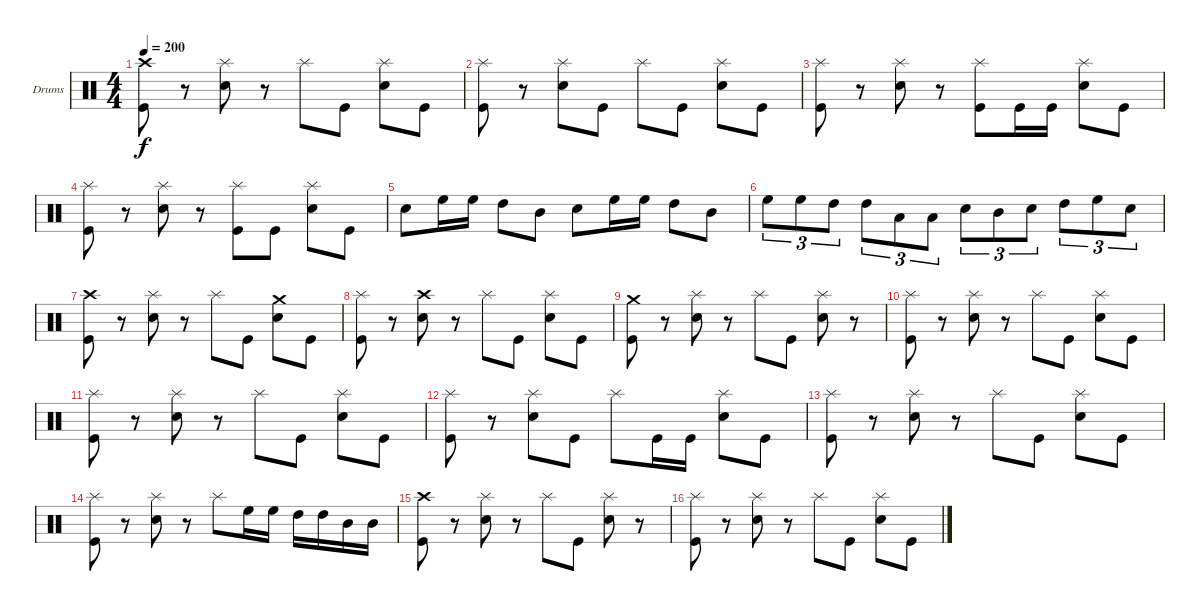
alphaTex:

\bracketExtendMode groupsimilarinstruments
\firstSystemTrackNameOrientation horizontal
\otherSystemsTrackNameOrientation horizontal
\track ("Drumkit" "Drums") {instrument percussion}
\staff {score}
\articulation defaults
\ts (4 4)
\tempo 200
\clef neutral
\ks c
("Crash high (hit)" "Kick (hit)").8{dy f} r.8 ("Splash (hit)" "Snare (hit) 2").8 r.8 "Splash (hit)".8 "Kick (hit)".8 ("Splash (hit)" "Snare (hit) 2").8 "Kick (hit)".8 |
("Splash (hit)" "Kick (hit)").8 r.8 ("Splash (hit)" "Snare (hit) 2").8 "Kick (hit)".8 "Splash (hit)".8 "Kick (hit)".8 ("Splash (hit)" "Snare (hit) 2").8 "Kick (hit)".8 |
("Splash (hit)" "Kick (hit)").8 r.8 ("Splash (hit)" "Snare (hit) 2").8 r.8 ("Splash (hit)" "Kick (hit)").8 "Kick (hit)".16 "Kick (hit)".16 ("Splash (hit)" "Snare (hit) 2").8 "Kick (hit)".8 |
("Splash (hit)" "Kick (hit)").8 r.8 ("Splash (hit)" "Snare (hit) 2").8 r.8 ("Splash (hit)" "Kick (hit)").8 "Kick (hit)".8 ("Splash (hit)" "Snare (hit) 2").8 "Kick (hit)".8 |
"Snare (hit) 2".8 "High Floor Tom (hit)".16 "High Floor Tom (hit)".16 "High Tom (hit)".8 "Mid Tom (hit)".8 "Snare (hit) 2".8 "High Floor Tom (hit)".16 "High Floor Tom (hit)".16 "High Tom (hit)".8 "Mid Tom (hit)".8 |
"High Floor Tom (hit)".8{tu (3 2)} "High Floor Tom (hit)".8{tu (3 2)} "High Tom (hit)".8{tu (3 2)} "High Tom (hit)".8{tu (3 2)} "Low Tom (hit)".8{tu (3 2)} "Low Tom (hit)".8{tu (3 2)} "Snare (hit) 2".8{tu (3 2)} "Mid Tom (hit)".8{tu (3 2)} "Snare (hit) 2".8{tu (3 2)} "High Tom (hit)".8{tu (3 2)} "High Floor Tom (hit)".8{tu (3 2)} "Snare (hit) 2".8{tu (3 2)} |
("Crash high (hit)" "Kick (hit)").8 r.8 ("Splash (hit)" "Snare (hit) 2").8 r.8 "Splash (hit)".8 "Kick (hit)".8 ("Crash medium (hit)" "Snare (hit) 2").8 "Kick (hit)".8 |
("Splash (hit)" "Kick (hit)").8 r.8 ("Crash high (hit)" "Snare (hit) 2").8 r.8 "Splash (hit)".8 "Kick (hit)".8 ("Splash (hit)" "Snare (hit) 2").8 "Kick (hit)".8 |
("Crash medium (hit)" "Kick (hit)").8 r.8 ("Splash (hit)" "Snare (hit) 2").8 r.8 "Splash (hit)".8 "Kick (hit)".8 ("Splash (hit)" "Snare (hit) 2").8 r.8 |
("Splash (hit)" "Kick (hit)").8 r.8 ("Splash (hit)" "Snare (hit) 2").8 r.8 "Splash (hit)".8 "Kick (hit)".8 ("Splash (hit)" "Snare (hit) 2").8 "Kick (hit)".8 |
("Splash (hit)" "Kick (hit)").8 r.8 ("Splash (hit)" "Snare (hit) 2").8 r.8 "Splash (hit)".8 "Kick (hit)".8 ("Splash (hit)" "Snare (hit) 2").8 "Kick (hit)".8 |
("Splash (hit)" "Kick (hit)").8 r.8 ("Splash (hit)" "Snare (hit) 2").8 "Kick (hit)".8 "Splash (hit)".8 "Kick (hit)".16 "Kick (hit)".16 ("Splash (hit)" "Snare (hit) 2").8 "Kick (hit)".8 |
("Splash (hit)" "Kick (hit)").8 r.8 ("Splash (hit)" "Snare (hit) 2").8 r.8 "Splash (hit)".8 "Kick (hit)".8 ("Splash (hit)" "Snare (hit) 2").8 "Kick (hit)".8 |
("Splash (hit)" "Kick (hit)").8 r.8 ("Splash (hit)" "Snare (hit) 2").8 r.8 "Splash (hit)".8 "High Floor Tom (hit)".16 "High Floor Tom (hit)".16 "High Tom (hit)".16 "High Tom (hit)".16 "Mid Tom (hit)".16 "Mid Tom (hit)".16 |
("Crash high (hit)" "Kick (hit)").8 r.8 ("Splash (hit)" "Snare (hit) 2").8 r.8 "Splash (hit)".8 "Kick (hit)".8 ("Splash (hit)" "Snare (hit) 2").8 r.8 |
("Splash (hit)" "Kick (hit)").8 r.8 ("Splash (hit)" "Snare (hit) 2").8 r.8 "Splash (hit)".8 "Kick (hit)".8 ("Splash (hit)" "Snare (hit) 2").8 "Kick (hit)".8
